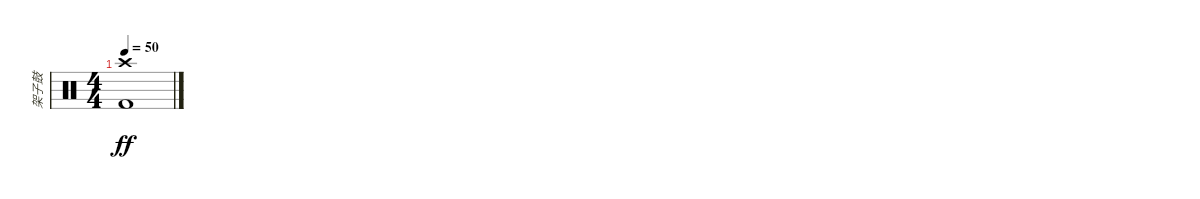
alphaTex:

\track ("架子鼓" "架子鼓") {instrument percussion}
\staff {score}
\articulation defaults
\ts (4 4)
\tempo 50
\clef neutral
\ks c
("Crash high (hit)" "Kick (hit) 2").1{dy ff}
